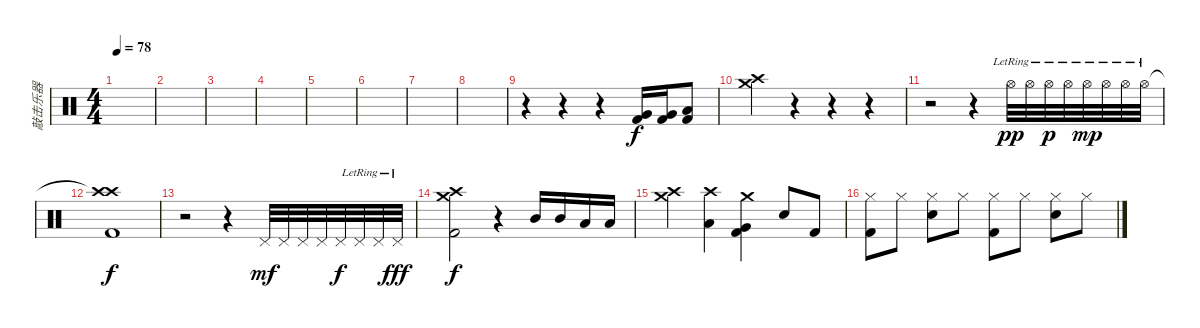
\track ("敲击乐器" "敲击乐器") {instrument percussion}
\staff {score}
\articulation defaults
\ts (4 4)
\tempo 78
\clef neutral
\ks c
|
|
|
|
|
|
|
|
r.4 r.4 r.4 ("Very Low Tom (hit)" "Kick (hit) 2").16 ("Very Low Tom (hit)" "Kick (hit) 2").16 ("Low Floor Tom (hit)" "Kick (hit) 2").8 |
("Crash high (hit)" "Crash medium (hit)").4 r.4 r.4 r.4 |
r.2 r.4 "Hi-Hat (open)"{lr}.32{dy pp} "Hi-Hat (open)"{lr}.32 "Hi-Hat (open)"{lr}.32{dy p} "Hi-Hat (open)"{lr}.32 "Hi-Hat (open)"{lr}.32{dy mp} "Hi-Hat (open)"{lr}.32 "Hi-Hat (open)"{lr}.32 "Hi-Hat (open)"{lr}.32 |
("Crash high (hit)"{t} "Kick (hit) 2" "Crash high (hit)").1{dy f} |
r.2 r.4 "Pedal Hi-Hat (hit)".32{dy mf} "Pedal Hi-Hat (hit)".32 "Pedal Hi-Hat (hit)".32 "Pedal Hi-Hat (hit)".32 "Pedal Hi-Hat (hit)".32{dy f} "Pedal Hi-Hat (hit)"{lr}.32 "Pedal Hi-Hat (hit)"{lr}.32 "Pedal Hi-Hat (hit)"{lr}.32{dy fff} |
("Crash medium (hit)" "Kick (hit) 2" "Crash high (hit)").2{dy f} r.4 "Mid Tom (hit)".16 "Mid Tom (hit)".16 "Low Tom (hit)".16 "Low Tom (hit)".16 |
("Crash medium (hit)" "Crash high (hit)").4 ("Low Tom (hit)" "Crash high (hit)").4 ("Very Low Tom (hit)" "Kick (hit) 2" "Crash medium (hit)").4 "Snare (hit) 2".8 "Kick (hit) 2".8 |
("Hi-Hat (closed)" "Kick (hit) 2").8 "Hi-Hat (closed)".8 ("Hi-Hat (closed)" "Snare (hit) 2").8 "Hi-Hat (closed)".8 ("Hi-Hat (closed)" "Kick (hit) 2").8 "Hi-Hat (closed)".8 ("Hi-Hat (closed)" "Snare (hit) 2").8 "Hi-Hat (closed)".8
